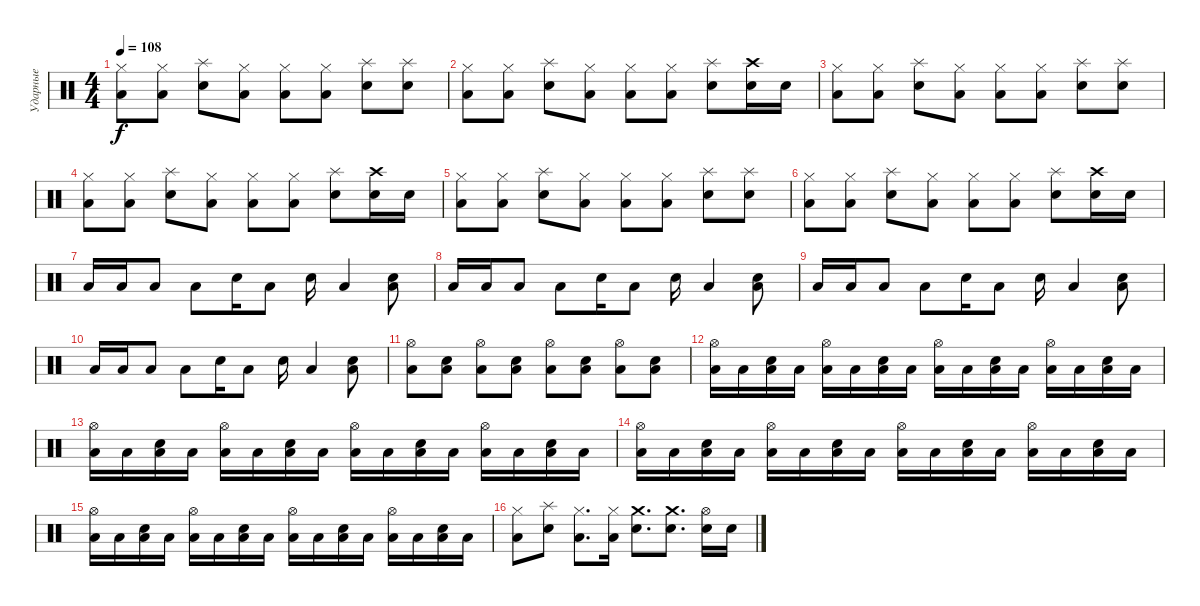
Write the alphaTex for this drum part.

\track ("Ударные" "Ударные") {instrument percussion}
\staff {score}
\articulation defaults
\ts (4 4)
\tempo 108
\clef neutral
\ks c
("Low Floor Tom (hit)" "Hi-Hat (closed)").8{dy f} ("Low Floor Tom (hit)" "Hi-Hat (closed)").8 ("Electric Snare (hit)" "Splash (hit)").8 ("Low Floor Tom (hit)" "Hi-Hat (closed)").8 ("Low Floor Tom (hit)" "Hi-Hat (closed)").8 ("Low Floor Tom (hit)" "Hi-Hat (closed)").8 ("Electric Snare (hit)" "Splash (hit)").8 ("Electric Snare (hit)" "Splash (hit)").8 |
("Low Floor Tom (hit)" "Hi-Hat (closed)").8 ("Low Floor Tom (hit)" "Hi-Hat (closed)").8 ("Electric Snare (hit)" "Splash (hit)").8 ("Low Floor Tom (hit)" "Hi-Hat (closed)").8 ("Low Floor Tom (hit)" "Hi-Hat (closed)").8 ("Low Floor Tom (hit)" "Hi-Hat (closed)").8 ("Electric Snare (hit)" "Splash (hit)").8 ("Electric Snare (hit)" "Crash high (hit)").16 "Electric Snare (hit)".16 |
("Low Floor Tom (hit)" "Hi-Hat (closed)").8 ("Low Floor Tom (hit)" "Hi-Hat (closed)").8 ("Electric Snare (hit)" "Splash (hit)").8 ("Low Floor Tom (hit)" "Hi-Hat (closed)").8 ("Low Floor Tom (hit)" "Hi-Hat (closed)").8 ("Low Floor Tom (hit)" "Hi-Hat (closed)").8 ("Electric Snare (hit)" "Splash (hit)").8 ("Electric Snare (hit)" "Splash (hit)").8 |
("Low Floor Tom (hit)" "Hi-Hat (closed)").8 ("Low Floor Tom (hit)" "Hi-Hat (closed)").8 ("Electric Snare (hit)" "Splash (hit)").8 ("Low Floor Tom (hit)" "Hi-Hat (closed)").8 ("Low Floor Tom (hit)" "Hi-Hat (closed)").8 ("Low Floor Tom (hit)" "Hi-Hat (closed)").8 ("Electric Snare (hit)" "Splash (hit)").8 ("Electric Snare (hit)" "Crash high (hit)").16 "Electric Snare (hit)".16 |
("Low Floor Tom (hit)" "Hi-Hat (closed)").8 ("Low Floor Tom (hit)" "Hi-Hat (closed)").8 ("Electric Snare (hit)" "Splash (hit)").8 ("Low Floor Tom (hit)" "Hi-Hat (closed)").8 ("Low Floor Tom (hit)" "Hi-Hat (closed)").8 ("Low Floor Tom (hit)" "Hi-Hat (closed)").8 ("Electric Snare (hit)" "Splash (hit)").8 ("Electric Snare (hit)" "Splash (hit)").8 |
("Low Floor Tom (hit)" "Hi-Hat (closed)").8 ("Low Floor Tom (hit)" "Hi-Hat (closed)").8 ("Electric Snare (hit)" "Splash (hit)").8 ("Low Floor Tom (hit)" "Hi-Hat (closed)").8 ("Low Floor Tom (hit)" "Hi-Hat (closed)").8 ("Low Floor Tom (hit)" "Hi-Hat (closed)").8 ("Electric Snare (hit)" "Splash (hit)").8 ("Electric Snare (hit)" "Crash high (hit)").16 "Electric Snare (hit)".16 |
"Low Floor Tom (hit)".16 "Low Floor Tom (hit)".16 "Low Floor Tom (hit)".8 "Low Floor Tom (hit)".8 "Electric Snare (hit)".16 "Low Floor Tom (hit)".8 "Electric Snare (hit)".16 "Low Floor Tom (hit)".4 ("Low Floor Tom (hit)" "Electric Snare (hit)").8 |
"Low Floor Tom (hit)".16 "Low Floor Tom (hit)".16 "Low Floor Tom (hit)".8 "Low Floor Tom (hit)".8 "Electric Snare (hit)".16 "Low Floor Tom (hit)".8 "Electric Snare (hit)".16 "Low Floor Tom (hit)".4 ("Low Floor Tom (hit)" "Electric Snare (hit)").8 |
"Low Floor Tom (hit)".16 "Low Floor Tom (hit)".16 "Low Floor Tom (hit)".8 "Low Floor Tom (hit)".8 "Electric Snare (hit)".16 "Low Floor Tom (hit)".8 "Electric Snare (hit)".16 "Low Floor Tom (hit)".4 ("Low Floor Tom (hit)" "Electric Snare (hit)").8 |
"Low Floor Tom (hit)".16 "Low Floor Tom (hit)".16 "Low Floor Tom (hit)".8 "Low Floor Tom (hit)".8 "Electric Snare (hit)".16 "Low Floor Tom (hit)".8 "Electric Snare (hit)".16 "Low Floor Tom (hit)".4 ("Low Floor Tom (hit)" "Electric Snare (hit)").8 |
("Low Floor Tom (hit)" "Hi-Hat (open)").8 ("Low Floor Tom (hit)" "Electric Snare (hit)").8 ("Low Floor Tom (hit)" "Hi-Hat (open)").8 ("Low Floor Tom (hit)" "Electric Snare (hit)").8 ("Low Floor Tom (hit)" "Hi-Hat (open)").8 ("Low Floor Tom (hit)" "Electric Snare (hit)").8 ("Low Floor Tom (hit)" "Hi-Hat (open)").8 ("Low Floor Tom (hit)" "Electric Snare (hit)").8 |
("Low Floor Tom (hit)" "Hi-Hat (open)").16 "Low Floor Tom (hit)".16 ("Low Floor Tom (hit)" "Electric Snare (hit)").16 "Low Floor Tom (hit)".16 ("Low Floor Tom (hit)" "Hi-Hat (open)").16 "Low Floor Tom (hit)".16 ("Low Floor Tom (hit)" "Electric Snare (hit)").16 "Low Floor Tom (hit)".16 ("Low Floor Tom (hit)" "Hi-Hat (open)").16 "Low Floor Tom (hit)".16 ("Low Floor Tom (hit)" "Electric Snare (hit)").16 "Low Floor Tom (hit)".16 ("Low Floor Tom (hit)" "Hi-Hat (open)").16 "Low Floor Tom (hit)".16 ("Low Floor Tom (hit)" "Electric Snare (hit)").16 "Low Floor Tom (hit)".16 |
("Low Floor Tom (hit)" "Hi-Hat (open)").16 "Low Floor Tom (hit)".16 ("Low Floor Tom (hit)" "Electric Snare (hit)").16 "Low Floor Tom (hit)".16 ("Low Floor Tom (hit)" "Hi-Hat (open)").16 "Low Floor Tom (hit)".16 ("Low Floor Tom (hit)" "Electric Snare (hit)").16 "Low Floor Tom (hit)".16 ("Low Floor Tom (hit)" "Hi-Hat (open)").16 "Low Floor Tom (hit)".16 ("Low Floor Tom (hit)" "Electric Snare (hit)").16 "Low Floor Tom (hit)".16 ("Low Floor Tom (hit)" "Hi-Hat (open)").16 "Low Floor Tom (hit)".16 ("Low Floor Tom (hit)" "Electric Snare (hit)").16 "Low Floor Tom (hit)".16 |
("Low Floor Tom (hit)" "Hi-Hat (open)").16 "Low Floor Tom (hit)".16 ("Low Floor Tom (hit)" "Electric Snare (hit)").16 "Low Floor Tom (hit)".16 ("Low Floor Tom (hit)" "Hi-Hat (open)").16 "Low Floor Tom (hit)".16 ("Low Floor Tom (hit)" "Electric Snare (hit)").16 "Low Floor Tom (hit)".16 ("Low Floor Tom (hit)" "Hi-Hat (open)").16 "Low Floor Tom (hit)".16 ("Low Floor Tom (hit)" "Electric Snare (hit)").16 "Low Floor Tom (hit)".16 ("Low Floor Tom (hit)" "Hi-Hat (open)").16 "Low Floor Tom (hit)".16 ("Low Floor Tom (hit)" "Electric Snare (hit)").16 "Low Floor Tom (hit)".16 |
("Low Floor Tom (hit)" "Hi-Hat (open)").16 "Low Floor Tom (hit)".16 ("Low Floor Tom (hit)" "Electric Snare (hit)").16 "Low Floor Tom (hit)".16 ("Low Floor Tom (hit)" "Hi-Hat (open)").16 "Low Floor Tom (hit)".16 ("Low Floor Tom (hit)" "Electric Snare (hit)").16 "Low Floor Tom (hit)".16 ("Low Floor Tom (hit)" "Hi-Hat (open)").16 "Low Floor Tom (hit)".16 ("Low Floor Tom (hit)" "Electric Snare (hit)").16 "Low Floor Tom (hit)".16 ("Low Floor Tom (hit)" "Hi-Hat (open)").16 "Low Floor Tom (hit)".16 ("Low Floor Tom (hit)" "Electric Snare (hit)").16 "Low Floor Tom (hit)".16 |
("Low Floor Tom (hit)" "Hi-Hat (closed)").8 ("Electric Snare (hit)" "Splash (hit)").8 ("Low Floor Tom (hit)" "Hi-Hat (closed)").8{d} ("Low Floor Tom (hit)" "Hi-Hat (closed)").16 ("Electric Snare (hit)" "Crash medium (hit)").8{d} ("Electric Snare (hit)" "Crash medium (hit)").8{d} ("Electric Snare (hit)" "Hi-Hat (open)").16 "Electric Snare (hit)".16
